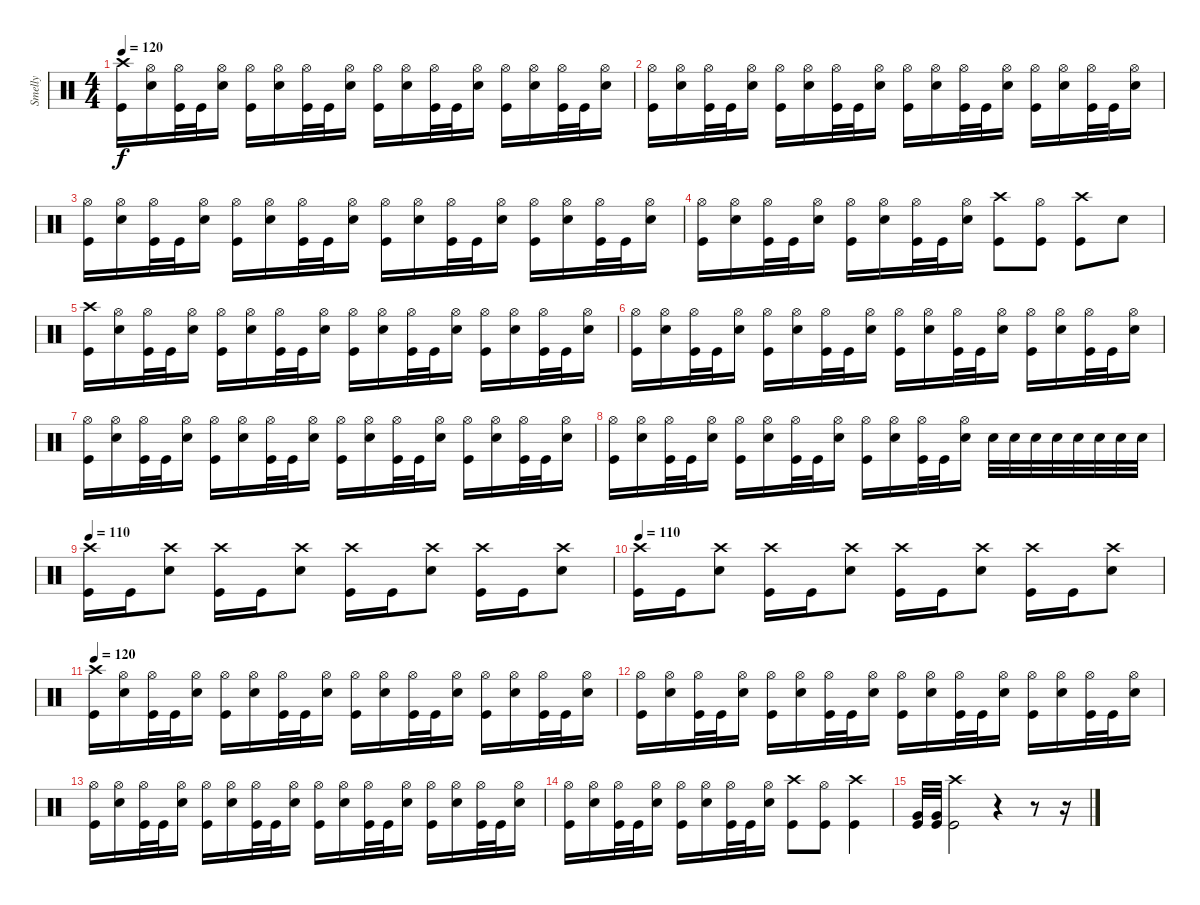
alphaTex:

\track ("Smelly" "Smelly") {instrument percussion}
\staff {score}
\articulation defaults
\ts (4 4)
\tempo 120
\clef neutral
\ks c
("Crash high (hit)" "Kick (hit)").16{dy f} ("Hi-Hat (open)" "Electric Snare (hit)").16 ("Hi-Hat (open)" "Kick (hit)").32 "Kick (hit)".32 ("Hi-Hat (open)" "Electric Snare (hit)").16 ("Hi-Hat (open)" "Kick (hit)").16 ("Hi-Hat (open)" "Electric Snare (hit)").16 ("Hi-Hat (open)" "Kick (hit)").32 "Kick (hit)".32 ("Hi-Hat (open)" "Electric Snare (hit)").16 ("Hi-Hat (open)" "Kick (hit)").16 ("Hi-Hat (open)" "Electric Snare (hit)").16 ("Hi-Hat (open)" "Kick (hit)").32 "Kick (hit)".32 ("Hi-Hat (open)" "Electric Snare (hit)").16 ("Hi-Hat (open)" "Kick (hit)").16 ("Hi-Hat (open)" "Electric Snare (hit)").16 ("Hi-Hat (open)" "Kick (hit)").32 "Kick (hit)".32 ("Hi-Hat (open)" "Electric Snare (hit)").16 |
("Hi-Hat (open)" "Kick (hit)").16 ("Hi-Hat (open)" "Electric Snare (hit)").16 ("Hi-Hat (open)" "Kick (hit)").32 "Kick (hit)".32 ("Hi-Hat (open)" "Electric Snare (hit)").16 ("Hi-Hat (open)" "Kick (hit)").16 ("Hi-Hat (open)" "Electric Snare (hit)").16 ("Hi-Hat (open)" "Kick (hit)").32 "Kick (hit)".32 ("Hi-Hat (open)" "Electric Snare (hit)").16 ("Hi-Hat (open)" "Kick (hit)").16 ("Hi-Hat (open)" "Electric Snare (hit)").16 ("Hi-Hat (open)" "Kick (hit)").32 "Kick (hit)".32 ("Hi-Hat (open)" "Electric Snare (hit)").16 ("Hi-Hat (open)" "Kick (hit)").16 ("Hi-Hat (open)" "Electric Snare (hit)").16 ("Hi-Hat (open)" "Kick (hit)").32 "Kick (hit)".32 ("Hi-Hat (open)" "Electric Snare (hit)").16 |
("Hi-Hat (open)" "Kick (hit)").16 ("Hi-Hat (open)" "Electric Snare (hit)").16 ("Hi-Hat (open)" "Kick (hit)").32 "Kick (hit)".32 ("Hi-Hat (open)" "Electric Snare (hit)").16 ("Hi-Hat (open)" "Kick (hit)").16 ("Hi-Hat (open)" "Electric Snare (hit)").16 ("Hi-Hat (open)" "Kick (hit)").32 "Kick (hit)".32 ("Hi-Hat (open)" "Electric Snare (hit)").16 ("Hi-Hat (open)" "Kick (hit)").16 ("Hi-Hat (open)" "Electric Snare (hit)").16 ("Hi-Hat (open)" "Kick (hit)").32 "Kick (hit)".32 ("Hi-Hat (open)" "Electric Snare (hit)").16 ("Hi-Hat (open)" "Kick (hit)").16 ("Hi-Hat (open)" "Electric Snare (hit)").16 ("Hi-Hat (open)" "Kick (hit)").32 "Kick (hit)".32 ("Hi-Hat (open)" "Electric Snare (hit)").16 |
("Hi-Hat (open)" "Kick (hit)").16 ("Hi-Hat (open)" "Electric Snare (hit)").16 ("Hi-Hat (open)" "Kick (hit)").32 "Kick (hit)".32 ("Hi-Hat (open)" "Electric Snare (hit)").16 ("Hi-Hat (open)" "Kick (hit)").16 ("Hi-Hat (open)" "Electric Snare (hit)").16 ("Hi-Hat (open)" "Kick (hit)").32 "Kick (hit)".32 ("Hi-Hat (open)" "Electric Snare (hit)").16 ("Crash high (hit)" "Kick (hit)").8 ("Hi-Hat (open)" "Kick (hit)").8 ("Crash high (hit)" "Kick (hit)").8 "Electric Snare (hit)".8 |
("Crash high (hit)" "Kick (hit)").16 ("Hi-Hat (open)" "Electric Snare (hit)").16 ("Hi-Hat (open)" "Kick (hit)").32 "Kick (hit)".32 ("Hi-Hat (open)" "Electric Snare (hit)").16 ("Hi-Hat (open)" "Kick (hit)").16 ("Hi-Hat (open)" "Electric Snare (hit)").16 ("Hi-Hat (open)" "Kick (hit)").32 "Kick (hit)".32 ("Hi-Hat (open)" "Electric Snare (hit)").16 ("Hi-Hat (open)" "Kick (hit)").16 ("Hi-Hat (open)" "Electric Snare (hit)").16 ("Hi-Hat (open)" "Kick (hit)").32 "Kick (hit)".32 ("Hi-Hat (open)" "Electric Snare (hit)").16 ("Hi-Hat (open)" "Kick (hit)").16 ("Hi-Hat (open)" "Electric Snare (hit)").16 ("Hi-Hat (open)" "Kick (hit)").32 "Kick (hit)".32 ("Hi-Hat (open)" "Electric Snare (hit)").16 |
("Hi-Hat (open)" "Kick (hit)").16 ("Hi-Hat (open)" "Electric Snare (hit)").16 ("Hi-Hat (open)" "Kick (hit)").32 "Kick (hit)".32 ("Hi-Hat (open)" "Electric Snare (hit)").16 ("Hi-Hat (open)" "Kick (hit)").16 ("Hi-Hat (open)" "Electric Snare (hit)").16 ("Hi-Hat (open)" "Kick (hit)").32 "Kick (hit)".32 ("Hi-Hat (open)" "Electric Snare (hit)").16 ("Hi-Hat (open)" "Kick (hit)").16 ("Hi-Hat (open)" "Electric Snare (hit)").16 ("Hi-Hat (open)" "Kick (hit)").32 "Kick (hit)".32 ("Hi-Hat (open)" "Electric Snare (hit)").16 ("Hi-Hat (open)" "Kick (hit)").16 ("Hi-Hat (open)" "Electric Snare (hit)").16 ("Hi-Hat (open)" "Kick (hit)").32 "Kick (hit)".32 ("Hi-Hat (open)" "Electric Snare (hit)").16 |
("Hi-Hat (open)" "Kick (hit)").16 ("Hi-Hat (open)" "Electric Snare (hit)").16 ("Hi-Hat (open)" "Kick (hit)").32 "Kick (hit)".32 ("Hi-Hat (open)" "Electric Snare (hit)").16 ("Hi-Hat (open)" "Kick (hit)").16 ("Hi-Hat (open)" "Electric Snare (hit)").16 ("Hi-Hat (open)" "Kick (hit)").32 "Kick (hit)".32 ("Hi-Hat (open)" "Electric Snare (hit)").16 ("Hi-Hat (open)" "Kick (hit)").16 ("Hi-Hat (open)" "Electric Snare (hit)").16 ("Hi-Hat (open)" "Kick (hit)").32 "Kick (hit)".32 ("Hi-Hat (open)" "Electric Snare (hit)").16 ("Hi-Hat (open)" "Kick (hit)").16 ("Hi-Hat (open)" "Electric Snare (hit)").16 ("Hi-Hat (open)" "Kick (hit)").32 "Kick (hit)".32 ("Hi-Hat (open)" "Electric Snare (hit)").16 |
("Hi-Hat (open)" "Kick (hit)").16 ("Hi-Hat (open)" "Electric Snare (hit)").16 ("Hi-Hat (open)" "Kick (hit)").32 "Kick (hit)".32 ("Hi-Hat (open)" "Electric Snare (hit)").16 ("Hi-Hat (open)" "Kick (hit)").16 ("Hi-Hat (open)" "Electric Snare (hit)").16 ("Hi-Hat (open)" "Kick (hit)").32 "Kick (hit)".32 ("Hi-Hat (open)" "Electric Snare (hit)").16 ("Hi-Hat (open)" "Kick (hit)").16 ("Hi-Hat (open)" "Electric Snare (hit)").16 ("Hi-Hat (open)" "Kick (hit)").32 "Kick (hit)".32 ("Hi-Hat (open)" "Electric Snare (hit)").16 "Electric Snare (hit)".32 "Electric Snare (hit)".32 "Electric Snare (hit)".32 "Electric Snare (hit)".32 "Electric Snare (hit)".32 "Electric Snare (hit)".32 "Electric Snare (hit)".32 "Electric Snare (hit)".32 |
\tempo 110
("Crash high (hit)" "Kick (hit)").16 "Kick (hit)".16 ("Crash high (hit)" "Electric Snare (hit)").8 ("Crash high (hit)" "Kick (hit)").16 "Kick (hit)".16 ("Crash high (hit)" "Electric Snare (hit)").8 ("Crash high (hit)" "Kick (hit)").16 "Kick (hit)".16 ("Crash high (hit)" "Electric Snare (hit)").8 ("Crash high (hit)" "Kick (hit)").16 "Kick (hit)".16 ("Crash high (hit)" "Electric Snare (hit)").8 |
\tempo 110
("Crash high (hit)" "Kick (hit)").16 "Kick (hit)".16 ("Crash high (hit)" "Electric Snare (hit)").8 ("Crash high (hit)" "Kick (hit)").16 "Kick (hit)".16 ("Crash high (hit)" "Electric Snare (hit)").8 ("Crash high (hit)" "Kick (hit)").16 "Kick (hit)".16 ("Crash high (hit)" "Electric Snare (hit)").8 ("Crash high (hit)" "Kick (hit)").16 "Kick (hit)".16 ("Crash high (hit)" "Electric Snare (hit)").8 |
\tempo 120
("Crash high (hit)" "Kick (hit)").16 ("Hi-Hat (open)" "Electric Snare (hit)").16 ("Hi-Hat (open)" "Kick (hit)").32 "Kick (hit)".32 ("Hi-Hat (open)" "Electric Snare (hit)").16 ("Hi-Hat (open)" "Kick (hit)").16 ("Hi-Hat (open)" "Electric Snare (hit)").16 ("Hi-Hat (open)" "Kick (hit)").32 "Kick (hit)".32 ("Hi-Hat (open)" "Electric Snare (hit)").16 ("Hi-Hat (open)" "Kick (hit)").16 ("Hi-Hat (open)" "Electric Snare (hit)").16 ("Hi-Hat (open)" "Kick (hit)").32 "Kick (hit)".32 ("Hi-Hat (open)" "Electric Snare (hit)").16 ("Hi-Hat (open)" "Kick (hit)").16 ("Hi-Hat (open)" "Electric Snare (hit)").16 ("Hi-Hat (open)" "Kick (hit)").32 "Kick (hit)".32 ("Hi-Hat (open)" "Electric Snare (hit)").16 |
("Hi-Hat (open)" "Kick (hit)").16 ("Hi-Hat (open)" "Electric Snare (hit)").16 ("Hi-Hat (open)" "Kick (hit)").32 "Kick (hit)".32 ("Hi-Hat (open)" "Electric Snare (hit)").16 ("Hi-Hat (open)" "Kick (hit)").16 ("Hi-Hat (open)" "Electric Snare (hit)").16 ("Hi-Hat (open)" "Kick (hit)").32 "Kick (hit)".32 ("Hi-Hat (open)" "Electric Snare (hit)").16 ("Hi-Hat (open)" "Kick (hit)").16 ("Hi-Hat (open)" "Electric Snare (hit)").16 ("Hi-Hat (open)" "Kick (hit)").32 "Kick (hit)".32 ("Hi-Hat (open)" "Electric Snare (hit)").16 ("Hi-Hat (open)" "Kick (hit)").16 ("Hi-Hat (open)" "Electric Snare (hit)").16 ("Hi-Hat (open)" "Kick (hit)").32 "Kick (hit)".32 ("Hi-Hat (open)" "Electric Snare (hit)").16 |
("Hi-Hat (open)" "Kick (hit)").16 ("Hi-Hat (open)" "Electric Snare (hit)").16 ("Hi-Hat (open)" "Kick (hit)").32 "Kick (hit)".32 ("Hi-Hat (open)" "Electric Snare (hit)").16 ("Hi-Hat (open)" "Kick (hit)").16 ("Hi-Hat (open)" "Electric Snare (hit)").16 ("Hi-Hat (open)" "Kick (hit)").32 "Kick (hit)".32 ("Hi-Hat (open)" "Electric Snare (hit)").16 ("Hi-Hat (open)" "Kick (hit)").16 ("Hi-Hat (open)" "Electric Snare (hit)").16 ("Hi-Hat (open)" "Kick (hit)").32 "Kick (hit)".32 ("Hi-Hat (open)" "Electric Snare (hit)").16 ("Hi-Hat (open)" "Kick (hit)").16 ("Hi-Hat (open)" "Electric Snare (hit)").16 ("Hi-Hat (open)" "Kick (hit)").32 "Kick (hit)".32 ("Hi-Hat (open)" "Electric Snare (hit)").16 |
("Hi-Hat (open)" "Kick (hit)").16 ("Hi-Hat (open)" "Electric Snare (hit)").16 ("Hi-Hat (open)" "Kick (hit)").32 "Kick (hit)".32 ("Hi-Hat (open)" "Electric Snare (hit)").16 ("Hi-Hat (open)" "Kick (hit)").16 ("Hi-Hat (open)" "Electric Snare (hit)").16 ("Hi-Hat (open)" "Kick (hit)").32 "Kick (hit)".32 ("Hi-Hat (open)" "Electric Snare (hit)").16 ("Crash high (hit)" "Kick (hit)").8 ("Hi-Hat (open)" "Kick (hit)").8 ("Crash high (hit)" "Kick (hit)").4 |
("Very Low Tom (hit)" "Kick (hit)").32 ("Very Low Tom (hit)" "Kick (hit)").32 ("Crash high (hit)" "Kick (hit)").2 r.4 r.8 r.16
